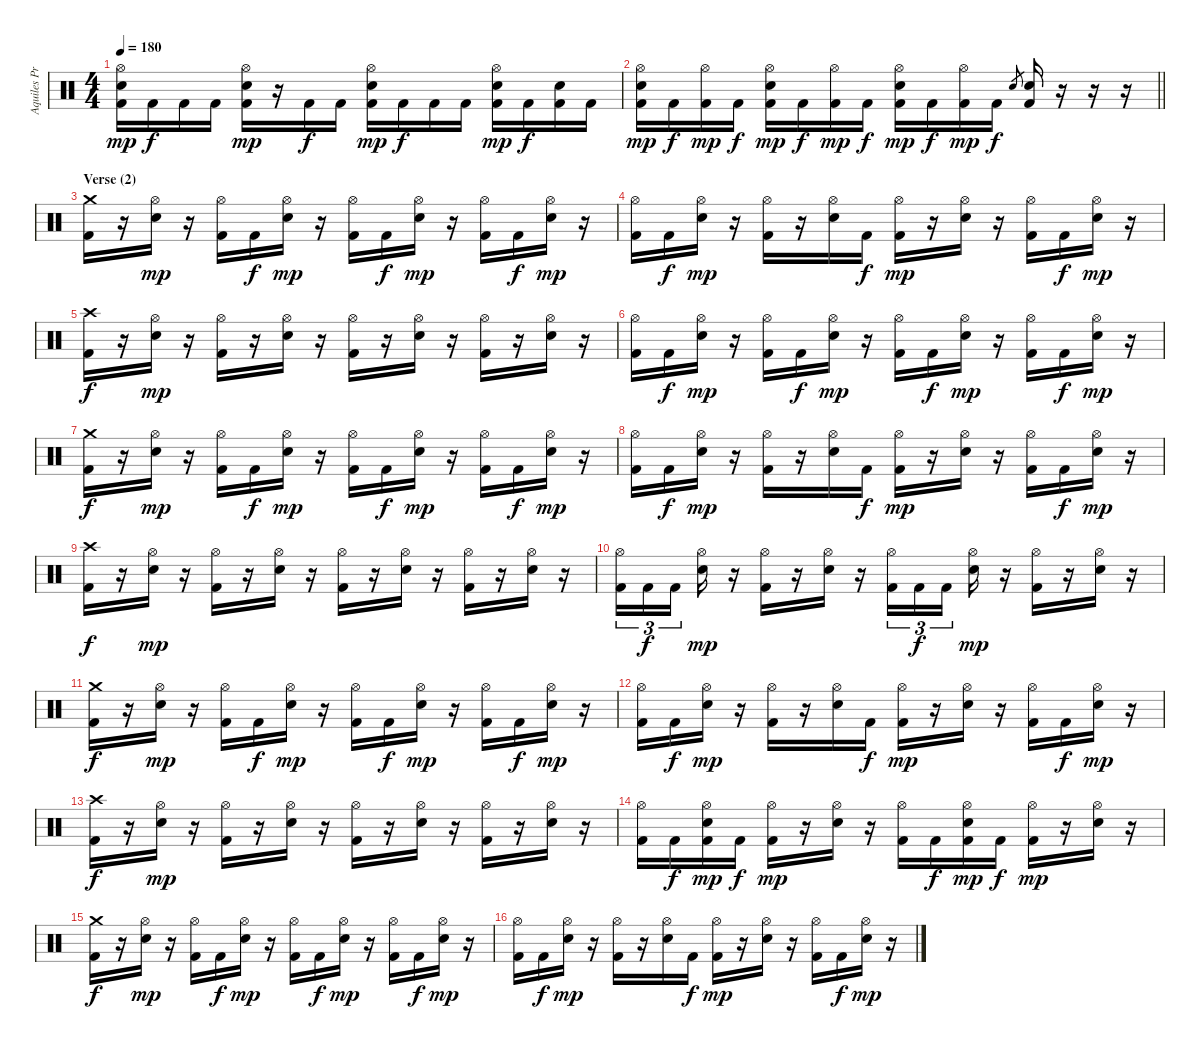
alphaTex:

\track ("Aquiles Priester" "Aquiles Pr") {instrument percussion}
\staff {score}
\articulation defaults
\ts (4 4)
\tempo 180
\clef neutral
\ks c
("Hi-Hat (open)" "Snare (hit) 2" "Kick (hit) 2").16{dy mp} "Kick (hit) 2".16{dy f} "Kick (hit) 2".16 "Kick (hit) 2".16 ("Hi-Hat (open)" "Snare (hit) 2" "Kick (hit) 2").16{dy mp} r.16 "Kick (hit) 2".16{dy f} "Kick (hit) 2".16 ("Hi-Hat (open)" "Snare (hit) 2" "Kick (hit) 2").16{dy mp} "Kick (hit) 2".16{dy f} "Kick (hit) 2".16 "Kick (hit) 2".16 ("Hi-Hat (open)" "Snare (hit) 2" "Kick (hit) 2").16{dy mp} "Kick (hit) 2".16{dy f} ("Snare (hit) 2" "Kick (hit) 2").16 "Kick (hit) 2".16 |
\barLineRight lightlight
("Hi-Hat (open)" "Snare (hit) 2" "Kick (hit) 2").16{dy mp} "Kick (hit) 2".16{dy f} ("Hi-Hat (open)" "Kick (hit) 2").16{dy mp} "Kick (hit) 2".16{dy f} ("Hi-Hat (open)" "Snare (hit) 2" "Kick (hit) 2").16{dy mp} "Kick (hit) 2".16{dy f} ("Hi-Hat (open)" "Kick (hit) 2").16{dy mp} "Kick (hit) 2".16{dy f} ("Hi-Hat (open)" "Snare (hit) 2" "Kick (hit) 2").16{dy mp} "Kick (hit) 2".16{dy f} ("Hi-Hat (open)" "Kick (hit) 2").16{dy mp} "Kick (hit) 2".16{dy f} "Snare (hit) 2".8{gr} ("Snare (hit) 2" "Kick (hit) 2").16 r.16 r.16 r.16 |
\section ("" "Verse (2)")
("Crash medium (hit)" "Kick (hit) 2").16 r.16 ("Hi-Hat (open)" "Snare (hit) 2").16{dy mp} r.16 ("Hi-Hat (open)" "Kick (hit) 2").16 "Kick (hit) 2".16{dy f} ("Hi-Hat (open)" "Snare (hit) 2").16{dy mp} r.16 ("Hi-Hat (open)" "Kick (hit) 2").16 "Kick (hit) 2".16{dy f} ("Hi-Hat (open)" "Snare (hit) 2").16{dy mp} r.16 ("Hi-Hat (open)" "Kick (hit) 2").16 "Kick (hit) 2".16{dy f} ("Hi-Hat (open)" "Snare (hit) 2").16{dy mp} r.16 |
("Hi-Hat (open)" "Kick (hit) 2").16 "Kick (hit) 2".16{dy f} ("Hi-Hat (open)" "Snare (hit) 2").16{dy mp} r.16 ("Hi-Hat (open)" "Kick (hit) 2").16 r.16 ("Hi-Hat (open)" "Snare (hit) 2").16 "Kick (hit) 2".16{dy f} ("Hi-Hat (open)" "Kick (hit) 2").16{dy mp} r.16 ("Hi-Hat (open)" "Snare (hit) 2").16 r.16 ("Hi-Hat (open)" "Kick (hit) 2").16 "Kick (hit) 2".16{dy f} ("Hi-Hat (open)" "Snare (hit) 2").16{dy mp} r.16 |
("Crash high (hit)" "Kick (hit) 2").16{dy f} r.16 ("Hi-Hat (open)" "Snare (hit) 2").16{dy mp} r.16 ("Hi-Hat (open)" "Kick (hit) 2").16 r.16 ("Hi-Hat (open)" "Snare (hit) 2").16 r.16 ("Hi-Hat (open)" "Kick (hit) 2").16 r.16 ("Hi-Hat (open)" "Snare (hit) 2").16 r.16 ("Hi-Hat (open)" "Kick (hit) 2").16 r.16 ("Hi-Hat (open)" "Snare (hit) 2").16 r.16 |
("Hi-Hat (open)" "Kick (hit) 2").16 "Kick (hit) 2".16{dy f} ("Hi-Hat (open)" "Snare (hit) 2").16{dy mp} r.16 ("Hi-Hat (open)" "Kick (hit) 2").16 "Kick (hit) 2".16{dy f} ("Hi-Hat (open)" "Snare (hit) 2").16{dy mp} r.16 ("Hi-Hat (open)" "Kick (hit) 2").16 "Kick (hit) 2".16{dy f} ("Hi-Hat (open)" "Snare (hit) 2").16{dy mp} r.16 ("Hi-Hat (open)" "Kick (hit) 2").16 "Kick (hit) 2".16{dy f} ("Hi-Hat (open)" "Snare (hit) 2").16{dy mp} r.16 |
("Crash medium (hit)" "Kick (hit) 2").16{dy f} r.16 ("Hi-Hat (open)" "Snare (hit) 2").16{dy mp} r.16 ("Hi-Hat (open)" "Kick (hit) 2").16 "Kick (hit) 2".16{dy f} ("Hi-Hat (open)" "Snare (hit) 2").16{dy mp} r.16 ("Hi-Hat (open)" "Kick (hit) 2").16 "Kick (hit) 2".16{dy f} ("Hi-Hat (open)" "Snare (hit) 2").16{dy mp} r.16 ("Hi-Hat (open)" "Kick (hit) 2").16 "Kick (hit) 2".16{dy f} ("Hi-Hat (open)" "Snare (hit) 2").16{dy mp} r.16 |
("Hi-Hat (open)" "Kick (hit) 2").16 "Kick (hit) 2".16{dy f} ("Hi-Hat (open)" "Snare (hit) 2").16{dy mp} r.16 ("Hi-Hat (open)" "Kick (hit) 2").16 r.16 ("Hi-Hat (open)" "Snare (hit) 2").16 "Kick (hit) 2".16{dy f} ("Hi-Hat (open)" "Kick (hit) 2").16{dy mp} r.16 ("Hi-Hat (open)" "Snare (hit) 2").16 r.16 ("Hi-Hat (open)" "Kick (hit) 2").16 "Kick (hit) 2".16{dy f} ("Hi-Hat (open)" "Snare (hit) 2").16{dy mp} r.16 |
("Crash high (hit)" "Kick (hit) 2").16{dy f} r.16 ("Hi-Hat (open)" "Snare (hit) 2").16{dy mp} r.16 ("Hi-Hat (open)" "Kick (hit) 2").16 r.16 ("Hi-Hat (open)" "Snare (hit) 2").16 r.16 ("Hi-Hat (open)" "Kick (hit) 2").16 r.16 ("Hi-Hat (open)" "Snare (hit) 2").16 r.16 ("Hi-Hat (open)" "Kick (hit) 2").16 r.16 ("Hi-Hat (open)" "Snare (hit) 2").16 r.16 |
("Hi-Hat (open)" "Kick (hit) 2").16{tu (3 2)} "Kick (hit) 2".16{tu (3 2) dy f} "Kick (hit) 2".16{tu (3 2) beam splitsecondary} ("Hi-Hat (open)" "Snare (hit) 2").16{dy mp} r.16 ("Hi-Hat (open)" "Kick (hit) 2").16 r.16 ("Hi-Hat (open)" "Snare (hit) 2").16 r.16 ("Hi-Hat (open)" "Kick (hit) 2").16{tu (3 2)} "Kick (hit) 2".16{tu (3 2) dy f} "Kick (hit) 2".16{tu (3 2) beam splitsecondary} ("Hi-Hat (open)" "Snare (hit) 2").16{dy mp} r.16 ("Hi-Hat (open)" "Kick (hit) 2").16 r.16 ("Hi-Hat (open)" "Snare (hit) 2").16 r.16 |
("Crash medium (hit)" "Kick (hit) 2").16{dy f} r.16 ("Hi-Hat (open)" "Snare (hit) 2").16{dy mp} r.16 ("Hi-Hat (open)" "Kick (hit) 2").16 "Kick (hit) 2".16{dy f} ("Hi-Hat (open)" "Snare (hit) 2").16{dy mp} r.16 ("Hi-Hat (open)" "Kick (hit) 2").16 "Kick (hit) 2".16{dy f} ("Hi-Hat (open)" "Snare (hit) 2").16{dy mp} r.16 ("Hi-Hat (open)" "Kick (hit) 2").16 "Kick (hit) 2".16{dy f} ("Hi-Hat (open)" "Snare (hit) 2").16{dy mp} r.16 |
("Hi-Hat (open)" "Kick (hit) 2").16 "Kick (hit) 2".16{dy f} ("Hi-Hat (open)" "Snare (hit) 2").16{dy mp} r.16 ("Hi-Hat (open)" "Kick (hit) 2").16 r.16 ("Hi-Hat (open)" "Snare (hit) 2").16 "Kick (hit) 2".16{dy f} ("Hi-Hat (open)" "Kick (hit) 2").16{dy mp} r.16 ("Hi-Hat (open)" "Snare (hit) 2").16 r.16 ("Hi-Hat (open)" "Kick (hit) 2").16 "Kick (hit) 2".16{dy f} ("Hi-Hat (open)" "Snare (hit) 2").16{dy mp} r.16 |
("Crash high (hit)" "Kick (hit) 2").16{dy f} r.16 ("Hi-Hat (open)" "Snare (hit) 2").16{dy mp} r.16 ("Hi-Hat (open)" "Kick (hit) 2").16 r.16 ("Hi-Hat (open)" "Snare (hit) 2").16 r.16 ("Hi-Hat (open)" "Kick (hit) 2").16 r.16 ("Hi-Hat (open)" "Snare (hit) 2").16 r.16 ("Hi-Hat (open)" "Kick (hit) 2").16 r.16 ("Hi-Hat (open)" "Snare (hit) 2").16 r.16 |
("Hi-Hat (open)" "Kick (hit) 2").16 "Kick (hit) 2".16{dy f} ("Hi-Hat (open)" "Snare (hit) 2" "Kick (hit) 2").16{dy mp} "Kick (hit) 2".16{dy f} ("Hi-Hat (open)" "Kick (hit) 2").16{dy mp} r.16 ("Hi-Hat (open)" "Snare (hit) 2").16 r.16 ("Hi-Hat (open)" "Kick (hit) 2").16 "Kick (hit) 2".16{dy f} ("Hi-Hat (open)" "Snare (hit) 2" "Kick (hit) 2").16{dy mp} "Kick (hit) 2".16{dy f} ("Hi-Hat (open)" "Kick (hit) 2").16{dy mp} r.16 ("Hi-Hat (open)" "Snare (hit) 2").16 r.16 |
("Crash medium (hit)" "Kick (hit) 2").16{dy f} r.16 ("Hi-Hat (open)" "Snare (hit) 2").16{dy mp} r.16 ("Hi-Hat (open)" "Kick (hit) 2").16 "Kick (hit) 2".16{dy f} ("Hi-Hat (open)" "Snare (hit) 2").16{dy mp} r.16 ("Hi-Hat (open)" "Kick (hit) 2").16 "Kick (hit) 2".16{dy f} ("Hi-Hat (open)" "Snare (hit) 2").16{dy mp} r.16 ("Hi-Hat (open)" "Kick (hit) 2").16 "Kick (hit) 2".16{dy f} ("Hi-Hat (open)" "Snare (hit) 2").16{dy mp} r.16 |
("Hi-Hat (open)" "Kick (hit) 2").16 "Kick (hit) 2".16{dy f} ("Hi-Hat (open)" "Snare (hit) 2").16{dy mp} r.16 ("Hi-Hat (open)" "Kick (hit) 2").16 r.16 ("Hi-Hat (open)" "Snare (hit) 2").16 "Kick (hit) 2".16{dy f} ("Hi-Hat (open)" "Kick (hit) 2").16{dy mp} r.16 ("Hi-Hat (open)" "Snare (hit) 2").16 r.16 ("Hi-Hat (open)" "Kick (hit) 2").16 "Kick (hit) 2".16{dy f} ("Hi-Hat (open)" "Snare (hit) 2").16{dy mp} r.16
